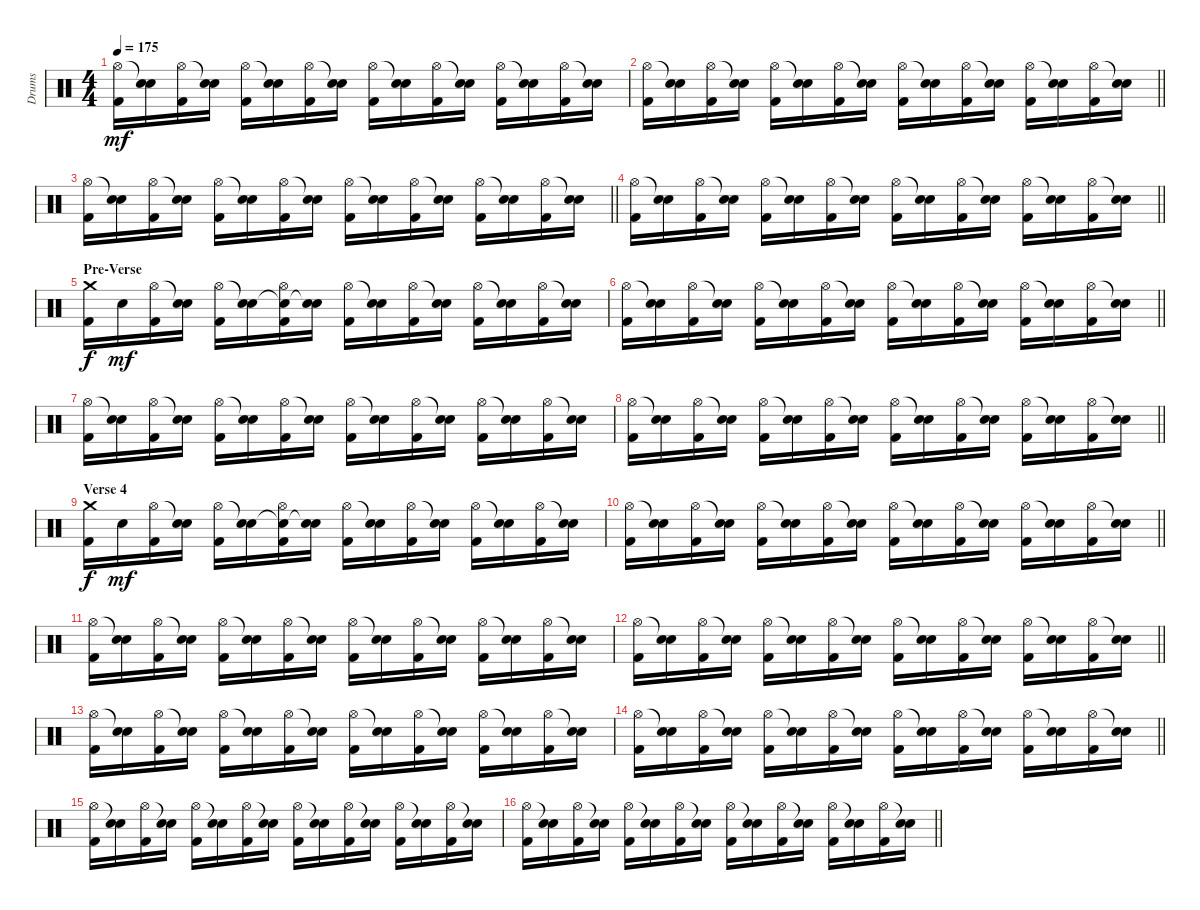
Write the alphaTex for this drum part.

\track ("Drums" "Drums") {instrument percussion}
\staff {score}
\articulation defaults
\ts (4 4)
\tempo 175
\clef neutral
\ks c
("Hi-Hat (open)" "Kick (hit) 2").16{dy mf} ("Snare (hit)"{t} "Electric Snare (hit)").16 ("Hi-Hat (open)" "Kick (hit) 2").16 ("Snare (hit)"{t} "Electric Snare (hit)").16 ("Hi-Hat (open)" "Kick (hit) 2").16 ("Snare (hit)"{t} "Electric Snare (hit)").16 ("Hi-Hat (open)" "Kick (hit) 2").16 ("Snare (hit)"{t} "Electric Snare (hit)").16 ("Hi-Hat (open)" "Kick (hit) 2").16 ("Snare (hit)"{t} "Electric Snare (hit)").16 ("Hi-Hat (open)" "Kick (hit) 2").16 ("Snare (hit)"{t} "Electric Snare (hit)").16 ("Hi-Hat (open)" "Kick (hit) 2").16 ("Snare (hit)"{t} "Electric Snare (hit)").16 ("Hi-Hat (open)" "Kick (hit) 2").16 ("Snare (hit)"{t} "Electric Snare (hit)").16 |
\barLineRight lightlight
("Hi-Hat (open)" "Kick (hit) 2").16 ("Snare (hit)"{t} "Electric Snare (hit)").16 ("Hi-Hat (open)" "Kick (hit) 2").16 ("Snare (hit)"{t} "Electric Snare (hit)").16 ("Hi-Hat (open)" "Kick (hit) 2").16 ("Snare (hit)"{t} "Electric Snare (hit)").16 ("Hi-Hat (open)" "Kick (hit) 2").16 ("Snare (hit)"{t} "Electric Snare (hit)").16 ("Hi-Hat (open)" "Kick (hit) 2").16 ("Snare (hit)"{t} "Electric Snare (hit)").16 ("Hi-Hat (open)" "Kick (hit) 2").16 ("Snare (hit)"{t} "Electric Snare (hit)").16 ("Hi-Hat (open)" "Kick (hit) 2").16 ("Snare (hit)"{t} "Electric Snare (hit)").16 ("Hi-Hat (open)" "Kick (hit) 2").16 ("Snare (hit)"{t} "Electric Snare (hit)").16 |
\barLineRight lightlight
("Hi-Hat (open)" "Kick (hit) 2").16 ("Snare (hit)"{t} "Electric Snare (hit)").16 ("Hi-Hat (open)" "Kick (hit) 2").16 ("Snare (hit)"{t} "Electric Snare (hit)").16 ("Hi-Hat (open)" "Kick (hit) 2").16 ("Snare (hit)"{t} "Electric Snare (hit)").16 ("Hi-Hat (open)" "Kick (hit) 2").16 ("Snare (hit)"{t} "Electric Snare (hit)").16 ("Hi-Hat (open)" "Kick (hit) 2").16 ("Snare (hit)"{t} "Electric Snare (hit)").16 ("Hi-Hat (open)" "Kick (hit) 2").16 ("Snare (hit)"{t} "Electric Snare (hit)").16 ("Hi-Hat (open)" "Kick (hit) 2").16 ("Snare (hit)"{t} "Electric Snare (hit)").16 ("Hi-Hat (open)" "Kick (hit) 2").16 ("Snare (hit)"{t} "Electric Snare (hit)").16 |
\barLineRight lightlight
("Hi-Hat (open)" "Kick (hit) 2").16 ("Snare (hit)"{t} "Electric Snare (hit)").16 ("Hi-Hat (open)" "Kick (hit) 2").16 ("Snare (hit)"{t} "Electric Snare (hit)").16 ("Hi-Hat (open)" "Kick (hit) 2").16 ("Snare (hit)"{t} "Electric Snare (hit)").16 ("Hi-Hat (open)" "Kick (hit) 2").16 ("Snare (hit)"{t} "Electric Snare (hit)").16 ("Hi-Hat (open)" "Kick (hit) 2").16 ("Snare (hit)"{t} "Electric Snare (hit)").16 ("Hi-Hat (open)" "Kick (hit) 2").16 ("Snare (hit)"{t} "Electric Snare (hit)").16 ("Hi-Hat (open)" "Kick (hit) 2").16 ("Snare (hit)"{t} "Electric Snare (hit)").16 ("Hi-Hat (open)" "Kick (hit) 2").16 ("Snare (hit)"{t} "Electric Snare (hit)").16 |
\section ("" "Pre-Verse")
("Crash medium (hit)" "Kick (hit) 2").16{dy f} "Electric Snare (hit)".16{dy mf} ("Hi-Hat (open)" "Kick (hit) 2").16 ("Snare (hit)"{t} "Electric Snare (hit)").16 ("Hi-Hat (open)" "Kick (hit) 2").16 ("Snare (hit)"{t} "Electric Snare (hit)").16 ("Snare (hit)"{t} "Hi-Hat (open)" "Kick (hit) 2").16 ("Snare (hit)"{t} "Electric Snare (hit)").16 ("Hi-Hat (open)" "Kick (hit) 2").16 ("Snare (hit)"{t} "Electric Snare (hit)").16 ("Hi-Hat (open)" "Kick (hit) 2").16 ("Snare (hit)"{t} "Electric Snare (hit)").16 ("Hi-Hat (open)" "Kick (hit) 2").16 ("Snare (hit)"{t} "Electric Snare (hit)").16 ("Hi-Hat (open)" "Kick (hit) 2").16 ("Snare (hit)"{t} "Electric Snare (hit)").16 |
\barLineRight lightlight
("Hi-Hat (open)" "Kick (hit) 2").16 ("Snare (hit)"{t} "Electric Snare (hit)").16 ("Hi-Hat (open)" "Kick (hit) 2").16 ("Snare (hit)"{t} "Electric Snare (hit)").16 ("Hi-Hat (open)" "Kick (hit) 2").16 ("Snare (hit)"{t} "Electric Snare (hit)").16 ("Hi-Hat (open)" "Kick (hit) 2").16 ("Snare (hit)"{t} "Electric Snare (hit)").16 ("Hi-Hat (open)" "Kick (hit) 2").16 ("Snare (hit)"{t} "Electric Snare (hit)").16 ("Hi-Hat (open)" "Kick (hit) 2").16 ("Snare (hit)"{t} "Electric Snare (hit)").16 ("Hi-Hat (open)" "Kick (hit) 2").16 ("Snare (hit)"{t} "Electric Snare (hit)").16 ("Hi-Hat (open)" "Kick (hit) 2").16 ("Snare (hit)"{t} "Electric Snare (hit)").16 |
("Hi-Hat (open)" "Kick (hit) 2").16 ("Snare (hit)"{t} "Electric Snare (hit)").16 ("Hi-Hat (open)" "Kick (hit) 2").16 ("Snare (hit)"{t} "Electric Snare (hit)").16 ("Hi-Hat (open)" "Kick (hit) 2").16 ("Snare (hit)"{t} "Electric Snare (hit)").16 ("Hi-Hat (open)" "Kick (hit) 2").16 ("Snare (hit)"{t} "Electric Snare (hit)").16 ("Hi-Hat (open)" "Kick (hit) 2").16 ("Snare (hit)"{t} "Electric Snare (hit)").16 ("Hi-Hat (open)" "Kick (hit) 2").16 ("Snare (hit)"{t} "Electric Snare (hit)").16 ("Hi-Hat (open)" "Kick (hit) 2").16 ("Snare (hit)"{t} "Electric Snare (hit)").16 ("Hi-Hat (open)" "Kick (hit) 2").16 ("Snare (hit)"{t} "Electric Snare (hit)").16 |
\barLineRight lightlight
("Hi-Hat (open)" "Kick (hit) 2").16 ("Snare (hit)"{t} "Electric Snare (hit)").16 ("Hi-Hat (open)" "Kick (hit) 2").16 ("Snare (hit)"{t} "Electric Snare (hit)").16 ("Hi-Hat (open)" "Kick (hit) 2").16 ("Snare (hit)"{t} "Electric Snare (hit)").16 ("Hi-Hat (open)" "Kick (hit) 2").16 ("Snare (hit)"{t} "Electric Snare (hit)").16 ("Hi-Hat (open)" "Kick (hit) 2").16 ("Snare (hit)"{t} "Electric Snare (hit)").16 ("Hi-Hat (open)" "Kick (hit) 2").16 ("Snare (hit)"{t} "Electric Snare (hit)").16 ("Hi-Hat (open)" "Kick (hit) 2").16 ("Snare (hit)"{t} "Electric Snare (hit)").16 ("Hi-Hat (open)" "Kick (hit) 2").16 ("Snare (hit)"{t} "Electric Snare (hit)").16 |
\section ("" "Verse 4")
("Crash medium (hit)" "Kick (hit) 2").16{dy f} "Electric Snare (hit)".16{dy mf} ("Hi-Hat (open)" "Kick (hit) 2").16 ("Snare (hit)"{t} "Electric Snare (hit)").16 ("Hi-Hat (open)" "Kick (hit) 2").16 ("Snare (hit)"{t} "Electric Snare (hit)").16 ("Snare (hit)"{t} "Hi-Hat (open)" "Kick (hit) 2").16 ("Snare (hit)"{t} "Electric Snare (hit)").16 ("Hi-Hat (open)" "Kick (hit) 2").16 ("Snare (hit)"{t} "Electric Snare (hit)").16 ("Hi-Hat (open)" "Kick (hit) 2").16 ("Snare (hit)"{t} "Electric Snare (hit)").16 ("Hi-Hat (open)" "Kick (hit) 2").16 ("Snare (hit)"{t} "Electric Snare (hit)").16 ("Hi-Hat (open)" "Kick (hit) 2").16 ("Snare (hit)"{t} "Electric Snare (hit)").16 |
\barLineRight lightlight
("Hi-Hat (open)" "Kick (hit) 2").16 ("Snare (hit)"{t} "Electric Snare (hit)").16 ("Hi-Hat (open)" "Kick (hit) 2").16 ("Snare (hit)"{t} "Electric Snare (hit)").16 ("Hi-Hat (open)" "Kick (hit) 2").16 ("Snare (hit)"{t} "Electric Snare (hit)").16 ("Hi-Hat (open)" "Kick (hit) 2").16 ("Snare (hit)"{t} "Electric Snare (hit)").16 ("Hi-Hat (open)" "Kick (hit) 2").16 ("Snare (hit)"{t} "Electric Snare (hit)").16 ("Hi-Hat (open)" "Kick (hit) 2").16 ("Snare (hit)"{t} "Electric Snare (hit)").16 ("Hi-Hat (open)" "Kick (hit) 2").16 ("Snare (hit)"{t} "Electric Snare (hit)").16 ("Hi-Hat (open)" "Kick (hit) 2").16 ("Snare (hit)"{t} "Electric Snare (hit)").16 |
("Hi-Hat (open)" "Kick (hit) 2").16 ("Snare (hit)"{t} "Electric Snare (hit)").16 ("Hi-Hat (open)" "Kick (hit) 2").16 ("Snare (hit)"{t} "Electric Snare (hit)").16 ("Hi-Hat (open)" "Kick (hit) 2").16 ("Snare (hit)"{t} "Electric Snare (hit)").16 ("Hi-Hat (open)" "Kick (hit) 2").16 ("Snare (hit)"{t} "Electric Snare (hit)").16 ("Hi-Hat (open)" "Kick (hit) 2").16 ("Snare (hit)"{t} "Electric Snare (hit)").16 ("Hi-Hat (open)" "Kick (hit) 2").16 ("Snare (hit)"{t} "Electric Snare (hit)").16 ("Hi-Hat (open)" "Kick (hit) 2").16 ("Snare (hit)"{t} "Electric Snare (hit)").16 ("Hi-Hat (open)" "Kick (hit) 2").16 ("Snare (hit)"{t} "Electric Snare (hit)").16 |
\barLineRight lightlight
("Hi-Hat (open)" "Kick (hit) 2").16 ("Snare (hit)"{t} "Electric Snare (hit)").16 ("Hi-Hat (open)" "Kick (hit) 2").16 ("Snare (hit)"{t} "Electric Snare (hit)").16 ("Hi-Hat (open)" "Kick (hit) 2").16 ("Snare (hit)"{t} "Electric Snare (hit)").16 ("Hi-Hat (open)" "Kick (hit) 2").16 ("Snare (hit)"{t} "Electric Snare (hit)").16 ("Hi-Hat (open)" "Kick (hit) 2").16 ("Snare (hit)"{t} "Electric Snare (hit)").16 ("Hi-Hat (open)" "Kick (hit) 2").16 ("Snare (hit)"{t} "Electric Snare (hit)").16 ("Hi-Hat (open)" "Kick (hit) 2").16 ("Snare (hit)"{t} "Electric Snare (hit)").16 ("Hi-Hat (open)" "Kick (hit) 2").16 ("Snare (hit)"{t} "Electric Snare (hit)").16 |
("Hi-Hat (open)" "Kick (hit) 2").16 ("Snare (hit)"{t} "Electric Snare (hit)").16 ("Hi-Hat (open)" "Kick (hit) 2").16 ("Snare (hit)"{t} "Electric Snare (hit)").16 ("Hi-Hat (open)" "Kick (hit) 2").16 ("Snare (hit)"{t} "Electric Snare (hit)").16 ("Hi-Hat (open)" "Kick (hit) 2").16 ("Snare (hit)"{t} "Electric Snare (hit)").16 ("Hi-Hat (open)" "Kick (hit) 2").16 ("Snare (hit)"{t} "Electric Snare (hit)").16 ("Hi-Hat (open)" "Kick (hit) 2").16 ("Snare (hit)"{t} "Electric Snare (hit)").16 ("Hi-Hat (open)" "Kick (hit) 2").16 ("Snare (hit)"{t} "Electric Snare (hit)").16 ("Hi-Hat (open)" "Kick (hit) 2").16 ("Snare (hit)"{t} "Electric Snare (hit)").16 |
\barLineRight lightlight
("Hi-Hat (open)" "Kick (hit) 2").16 ("Snare (hit)"{t} "Electric Snare (hit)").16 ("Hi-Hat (open)" "Kick (hit) 2").16 ("Snare (hit)"{t} "Electric Snare (hit)").16 ("Hi-Hat (open)" "Kick (hit) 2").16 ("Snare (hit)"{t} "Electric Snare (hit)").16 ("Hi-Hat (open)" "Kick (hit) 2").16 ("Snare (hit)"{t} "Electric Snare (hit)").16 ("Hi-Hat (open)" "Kick (hit) 2").16 ("Snare (hit)"{t} "Electric Snare (hit)").16 ("Hi-Hat (open)" "Kick (hit) 2").16 ("Snare (hit)"{t} "Electric Snare (hit)").16 ("Hi-Hat (open)" "Kick (hit) 2").16 ("Snare (hit)"{t} "Electric Snare (hit)").16 ("Hi-Hat (open)" "Kick (hit) 2").16 ("Snare (hit)"{t} "Electric Snare (hit)").16 |
("Hi-Hat (open)" "Kick (hit) 2").16 ("Snare (hit)"{t} "Electric Snare (hit)").16 ("Hi-Hat (open)" "Kick (hit) 2").16 ("Snare (hit)"{t} "Electric Snare (hit)").16 ("Hi-Hat (open)" "Kick (hit) 2").16 ("Snare (hit)"{t} "Electric Snare (hit)").16 ("Hi-Hat (open)" "Kick (hit) 2").16 ("Snare (hit)"{t} "Electric Snare (hit)").16 ("Hi-Hat (open)" "Kick (hit) 2").16 ("Snare (hit)"{t} "Electric Snare (hit)").16 ("Hi-Hat (open)" "Kick (hit) 2").16 ("Snare (hit)"{t} "Electric Snare (hit)").16 ("Hi-Hat (open)" "Kick (hit) 2").16 ("Snare (hit)"{t} "Electric Snare (hit)").16 ("Hi-Hat (open)" "Kick (hit) 2").16 ("Snare (hit)"{t} "Electric Snare (hit)").16 |
\barLineRight lightlight
("Hi-Hat (open)" "Kick (hit) 2").16 ("Snare (hit)"{t} "Electric Snare (hit)").16 ("Hi-Hat (open)" "Kick (hit) 2").16 ("Snare (hit)"{t} "Electric Snare (hit)").16 ("Hi-Hat (open)" "Kick (hit) 2").16 ("Snare (hit)"{t} "Electric Snare (hit)").16 ("Hi-Hat (open)" "Kick (hit) 2").16 ("Snare (hit)"{t} "Electric Snare (hit)").16 ("Hi-Hat (open)" "Kick (hit) 2").16 ("Snare (hit)"{t} "Electric Snare (hit)").16 ("Hi-Hat (open)" "Kick (hit) 2").16 ("Snare (hit)"{t} "Electric Snare (hit)").16 ("Hi-Hat (open)" "Kick (hit) 2").16 ("Snare (hit)"{t} "Electric Snare (hit)").16 ("Hi-Hat (open)" "Kick (hit) 2").16 ("Snare (hit)"{t} "Electric Snare (hit)").16
